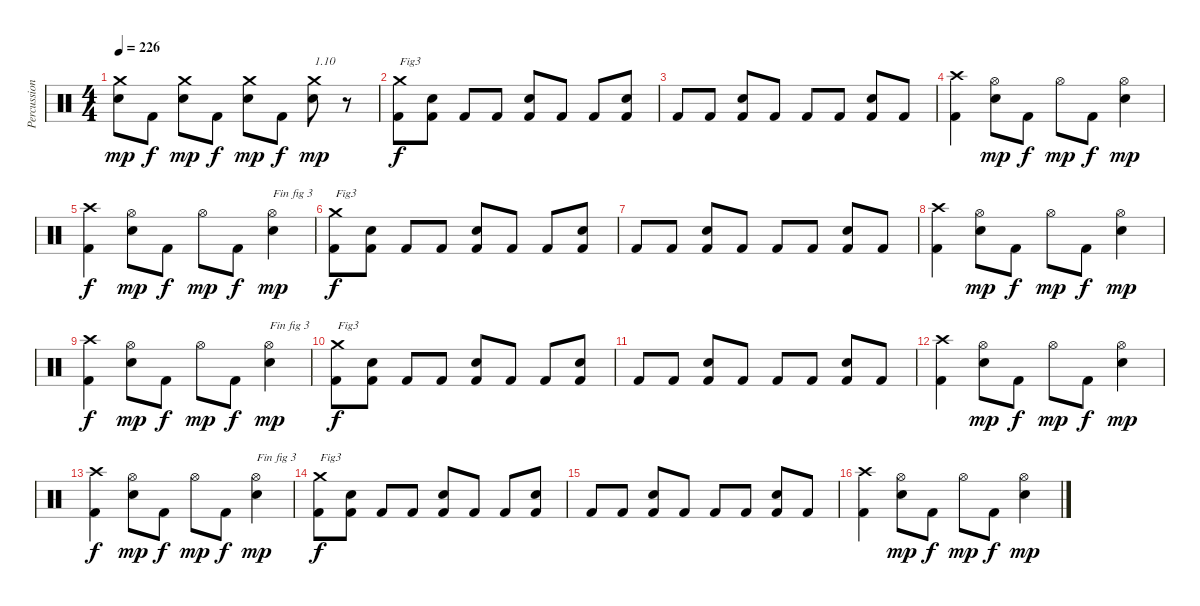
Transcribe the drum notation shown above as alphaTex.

\track ("Percussions" "Percussion") {instrument percussion}
\staff {score}
\articulation defaults
\ts (4 4)
\tempo 226
\clef neutral
\ks c
("Electric Snare (hit)" "Crash medium (hit)").8{dy mp} "Kick (hit) 2".8{dy f} ("Electric Snare (hit)" "Crash medium (hit)").8{dy mp} "Kick (hit) 2".8{dy f} ("Electric Snare (hit)" "Crash medium (hit)").8{dy mp} "Kick (hit) 2".8{dy f} ("Electric Snare (hit)" "Crash medium (hit)").8{txt "1.10" dy mp} r.8 |
("Kick (hit) 2" "Crash medium (hit)").8{txt "Fig3" dy f} ("Kick (hit) 2" "Electric Snare (hit)").8 "Kick (hit) 2".8 "Kick (hit) 2".8 ("Kick (hit) 2" "Electric Snare (hit)").8 "Kick (hit) 2".8 "Kick (hit) 2".8 ("Kick (hit) 2" "Electric Snare (hit)").8 |
"Kick (hit) 2".8 "Kick (hit) 2".8 ("Kick (hit) 2" "Electric Snare (hit)").8 "Kick (hit) 2".8 "Kick (hit) 2".8 "Kick (hit) 2".8 ("Kick (hit) 2" "Electric Snare (hit)").8 "Kick (hit) 2".8 |
("Kick (hit) 2" "Crash high (hit)").4 ("Electric Snare (hit)" "Hi-Hat (open)").8{dy mp} "Kick (hit) 2".8{dy f} "Hi-Hat (open)".8{dy mp} "Kick (hit) 2".8{dy f} ("Electric Snare (hit)" "Hi-Hat (open)").4{dy mp} |
("Kick (hit) 2" "Crash high (hit)").4{dy f} ("Electric Snare (hit)" "Hi-Hat (open)").8{dy mp} "Kick (hit) 2".8{dy f} "Hi-Hat (open)".8{dy mp} "Kick (hit) 2".8{dy f} ("Electric Snare (hit)" "Hi-Hat (open)").4{txt "Fin fig 3" dy mp} |
("Kick (hit) 2" "Crash medium (hit)").8{txt "Fig3" dy f} ("Kick (hit) 2" "Electric Snare (hit)").8 "Kick (hit) 2".8 "Kick (hit) 2".8 ("Kick (hit) 2" "Electric Snare (hit)").8 "Kick (hit) 2".8 "Kick (hit) 2".8 ("Kick (hit) 2" "Electric Snare (hit)").8 |
"Kick (hit) 2".8 "Kick (hit) 2".8 ("Kick (hit) 2" "Electric Snare (hit)").8 "Kick (hit) 2".8 "Kick (hit) 2".8 "Kick (hit) 2".8 ("Kick (hit) 2" "Electric Snare (hit)").8 "Kick (hit) 2".8 |
("Kick (hit) 2" "Crash high (hit)").4 ("Electric Snare (hit)" "Hi-Hat (open)").8{dy mp} "Kick (hit) 2".8{dy f} "Hi-Hat (open)".8{dy mp} "Kick (hit) 2".8{dy f} ("Electric Snare (hit)" "Hi-Hat (open)").4{dy mp} |
("Kick (hit) 2" "Crash high (hit)").4{dy f} ("Electric Snare (hit)" "Hi-Hat (open)").8{dy mp} "Kick (hit) 2".8{dy f} "Hi-Hat (open)".8{dy mp} "Kick (hit) 2".8{dy f} ("Electric Snare (hit)" "Hi-Hat (open)").4{txt "Fin fig 3" dy mp} |
("Kick (hit) 2" "Crash medium (hit)").8{txt "Fig3" dy f} ("Kick (hit) 2" "Electric Snare (hit)").8 "Kick (hit) 2".8 "Kick (hit) 2".8 ("Kick (hit) 2" "Electric Snare (hit)").8 "Kick (hit) 2".8 "Kick (hit) 2".8 ("Kick (hit) 2" "Electric Snare (hit)").8 |
"Kick (hit) 2".8 "Kick (hit) 2".8 ("Kick (hit) 2" "Electric Snare (hit)").8 "Kick (hit) 2".8 "Kick (hit) 2".8 "Kick (hit) 2".8 ("Kick (hit) 2" "Electric Snare (hit)").8 "Kick (hit) 2".8 |
("Kick (hit) 2" "Crash high (hit)").4 ("Electric Snare (hit)" "Hi-Hat (open)").8{dy mp} "Kick (hit) 2".8{dy f} "Hi-Hat (open)".8{dy mp} "Kick (hit) 2".8{dy f} ("Electric Snare (hit)" "Hi-Hat (open)").4{dy mp} |
("Kick (hit) 2" "Crash high (hit)").4{dy f} ("Electric Snare (hit)" "Hi-Hat (open)").8{dy mp} "Kick (hit) 2".8{dy f} "Hi-Hat (open)".8{dy mp} "Kick (hit) 2".8{dy f} ("Electric Snare (hit)" "Hi-Hat (open)").4{txt "Fin fig 3" dy mp} |
("Kick (hit) 2" "Crash medium (hit)").8{txt "Fig3" dy f} ("Kick (hit) 2" "Electric Snare (hit)").8 "Kick (hit) 2".8 "Kick (hit) 2".8 ("Kick (hit) 2" "Electric Snare (hit)").8 "Kick (hit) 2".8 "Kick (hit) 2".8 ("Kick (hit) 2" "Electric Snare (hit)").8 |
"Kick (hit) 2".8 "Kick (hit) 2".8 ("Kick (hit) 2" "Electric Snare (hit)").8 "Kick (hit) 2".8 "Kick (hit) 2".8 "Kick (hit) 2".8 ("Kick (hit) 2" "Electric Snare (hit)").8 "Kick (hit) 2".8 |
("Kick (hit) 2" "Crash high (hit)").4 ("Electric Snare (hit)" "Hi-Hat (open)").8{dy mp} "Kick (hit) 2".8{dy f} "Hi-Hat (open)".8{dy mp} "Kick (hit) 2".8{dy f} ("Electric Snare (hit)" "Hi-Hat (open)").4{dy mp}
